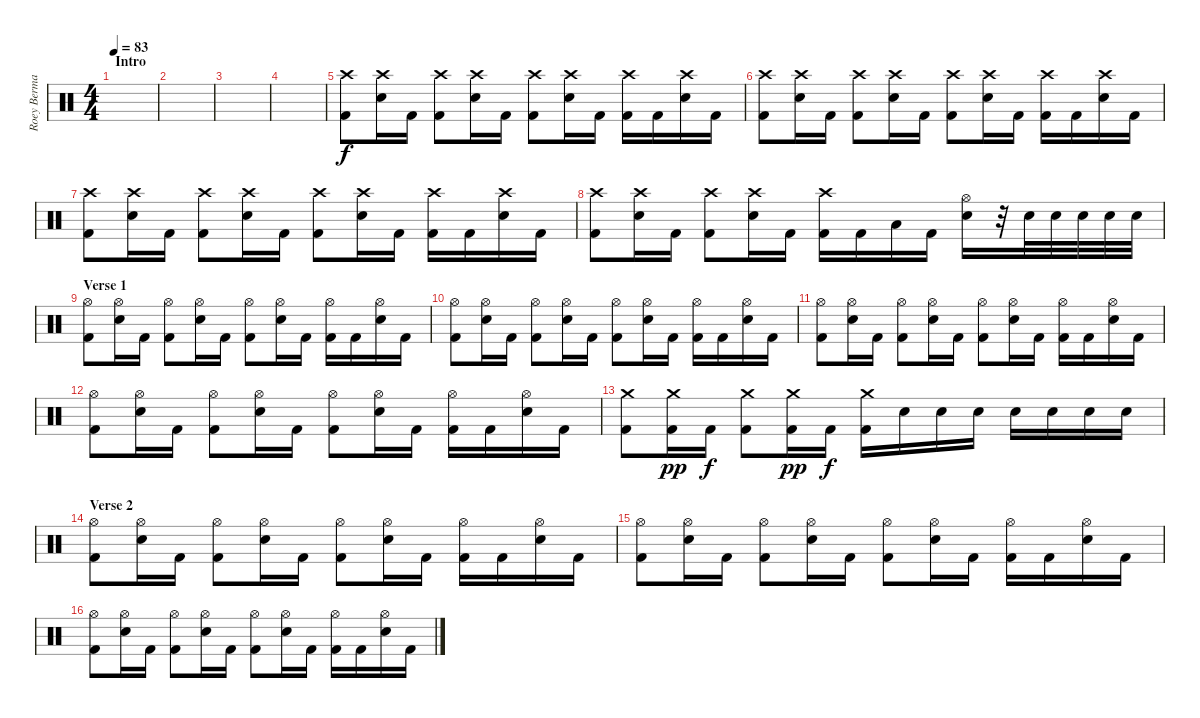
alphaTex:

\track ("Roey Berman" "Roey Berma") {instrument percussion}
\staff {score}
\articulation defaults
\ts (4 4)
\section ("" "Intro")
\tempo 83
\clef neutral
\ks c
|
|
|
|
("Crash high (hit)" "Kick (hit) 2").8 ("Crash high (hit)" "Electric Snare (hit)").16 "Kick (hit) 2".16 ("Crash high (hit)" "Kick (hit) 2").8 ("Crash high (hit)" "Electric Snare (hit)").16 "Kick (hit) 2".16 ("Crash high (hit)" "Kick (hit) 2").8 ("Crash high (hit)" "Electric Snare (hit)").16 "Kick (hit) 2".16 ("Crash high (hit)" "Kick (hit) 2").16 "Kick (hit) 2".16 ("Crash high (hit)" "Electric Snare (hit)").16 "Kick (hit) 2".16 |
("Crash high (hit)" "Kick (hit) 2").8 ("Crash high (hit)" "Electric Snare (hit)").16 "Kick (hit) 2".16 ("Crash high (hit)" "Kick (hit) 2").8 ("Crash high (hit)" "Electric Snare (hit)").16 "Kick (hit) 2".16 ("Crash high (hit)" "Kick (hit) 2").8 ("Crash high (hit)" "Electric Snare (hit)").16 "Kick (hit) 2".16 ("Crash high (hit)" "Kick (hit) 2").16 "Kick (hit) 2".16 ("Crash high (hit)" "Electric Snare (hit)").16 "Kick (hit) 2".16 |
("Crash high (hit)" "Kick (hit) 2").8 ("Crash high (hit)" "Electric Snare (hit)").16 "Kick (hit) 2".16 ("Crash high (hit)" "Kick (hit) 2").8 ("Crash high (hit)" "Electric Snare (hit)").16 "Kick (hit) 2".16 ("Crash high (hit)" "Kick (hit) 2").8 ("Crash high (hit)" "Electric Snare (hit)").16 "Kick (hit) 2".16 ("Crash high (hit)" "Kick (hit) 2").16 "Kick (hit) 2".16 ("Crash high (hit)" "Electric Snare (hit)").16 "Kick (hit) 2".16 |
("Crash high (hit)" "Kick (hit) 2").8 ("Crash high (hit)" "Electric Snare (hit)").16 "Kick (hit) 2".16 ("Crash high (hit)" "Kick (hit) 2").8 ("Crash high (hit)" "Electric Snare (hit)").16 "Kick (hit) 2".16 ("Crash high (hit)" "Kick (hit) 2").16 "Kick (hit) 2".16 "Low Tom (hit)".16 "Kick (hit) 2".16 ("Hi-Hat (open)" "Electric Snare (hit)").16 r.32 "Electric Snare (hit)".32 "Electric Snare (hit)".32 "Electric Snare (hit)".32 "Electric Snare (hit)".32 "Electric Snare (hit)".32 |
\section ("" "Verse 1")
("Hi-Hat (open)" "Kick (hit) 2").8 ("Hi-Hat (open)" "Electric Snare (hit)").16 "Kick (hit) 2".16 ("Hi-Hat (open)" "Kick (hit) 2").8 ("Hi-Hat (open)" "Electric Snare (hit)").16 "Kick (hit) 2".16 ("Hi-Hat (open)" "Kick (hit) 2").8 ("Hi-Hat (open)" "Electric Snare (hit)").16 "Kick (hit) 2".16 ("Hi-Hat (open)" "Kick (hit) 2").16 "Kick (hit) 2".16 ("Hi-Hat (open)" "Electric Snare (hit)").16 "Kick (hit) 2".16 |
("Hi-Hat (open)" "Kick (hit) 2").8 ("Hi-Hat (open)" "Electric Snare (hit)").16 "Kick (hit) 2".16 ("Hi-Hat (open)" "Kick (hit) 2").8 ("Hi-Hat (open)" "Electric Snare (hit)").16 "Kick (hit) 2".16 ("Hi-Hat (open)" "Kick (hit) 2").8 ("Hi-Hat (open)" "Electric Snare (hit)").16 "Kick (hit) 2".16 ("Hi-Hat (open)" "Kick (hit) 2").16 "Kick (hit) 2".16 ("Hi-Hat (open)" "Electric Snare (hit)").16 "Kick (hit) 2".16 |
("Hi-Hat (open)" "Kick (hit) 2").8 ("Hi-Hat (open)" "Electric Snare (hit)").16 "Kick (hit) 2".16 ("Hi-Hat (open)" "Kick (hit) 2").8 ("Hi-Hat (open)" "Electric Snare (hit)").16 "Kick (hit) 2".16 ("Hi-Hat (open)" "Kick (hit) 2").8 ("Hi-Hat (open)" "Electric Snare (hit)").16 "Kick (hit) 2".16 ("Hi-Hat (open)" "Kick (hit) 2").16 "Kick (hit) 2".16 ("Hi-Hat (open)" "Electric Snare (hit)").16 "Kick (hit) 2".16 |
("Hi-Hat (open)" "Kick (hit) 2").8 ("Hi-Hat (open)" "Electric Snare (hit)").16 "Kick (hit) 2".16 ("Hi-Hat (open)" "Kick (hit) 2").8 ("Hi-Hat (open)" "Electric Snare (hit)").16 "Kick (hit) 2".16 ("Hi-Hat (open)" "Kick (hit) 2").8 ("Hi-Hat (open)" "Electric Snare (hit)").16 "Kick (hit) 2".16 ("Hi-Hat (open)" "Kick (hit) 2").16 "Kick (hit) 2".16 ("Hi-Hat (open)" "Electric Snare (hit)").16 "Kick (hit) 2".16 |
("Crash medium (hit)" "Kick (hit) 2").8 ("Crash medium (hit)" "Kick (hit) 2").16{dy pp} "Kick (hit) 2".16{dy f} ("Crash medium (hit)" "Kick (hit) 2").8 ("Crash medium (hit)" "Kick (hit) 2").16{dy pp} "Kick (hit) 2".16{dy f} ("Crash medium (hit)" "Kick (hit) 2").16 "Electric Snare (hit)".16 "Electric Snare (hit)".16 "Electric Snare (hit)".16 "Electric Snare (hit)".16 "Electric Snare (hit)".16 "Electric Snare (hit)".16 "Electric Snare (hit)".16 |
\section ("" "Verse 2")
("Hi-Hat (open)" "Kick (hit) 2").8 ("Hi-Hat (open)" "Electric Snare (hit)").16 "Kick (hit) 2".16 ("Hi-Hat (open)" "Kick (hit) 2").8 ("Hi-Hat (open)" "Electric Snare (hit)").16 "Kick (hit) 2".16 ("Hi-Hat (open)" "Kick (hit) 2").8 ("Hi-Hat (open)" "Electric Snare (hit)").16 "Kick (hit) 2".16 ("Hi-Hat (open)" "Kick (hit) 2").16 "Kick (hit) 2".16 ("Hi-Hat (open)" "Electric Snare (hit)").16 "Kick (hit) 2".16 |
("Hi-Hat (open)" "Kick (hit) 2").8 ("Hi-Hat (open)" "Electric Snare (hit)").16 "Kick (hit) 2".16 ("Hi-Hat (open)" "Kick (hit) 2").8 ("Hi-Hat (open)" "Electric Snare (hit)").16 "Kick (hit) 2".16 ("Hi-Hat (open)" "Kick (hit) 2").8 ("Hi-Hat (open)" "Electric Snare (hit)").16 "Kick (hit) 2".16 ("Hi-Hat (open)" "Kick (hit) 2").16 "Kick (hit) 2".16 ("Hi-Hat (open)" "Electric Snare (hit)").16 "Kick (hit) 2".16 |
("Hi-Hat (open)" "Kick (hit) 2").8 ("Hi-Hat (open)" "Electric Snare (hit)").16 "Kick (hit) 2".16 ("Hi-Hat (open)" "Kick (hit) 2").8 ("Hi-Hat (open)" "Electric Snare (hit)").16 "Kick (hit) 2".16 ("Hi-Hat (open)" "Kick (hit) 2").8 ("Hi-Hat (open)" "Electric Snare (hit)").16 "Kick (hit) 2".16 ("Hi-Hat (open)" "Kick (hit) 2").16 "Kick (hit) 2".16 ("Hi-Hat (open)" "Electric Snare (hit)").16 "Kick (hit) 2".16
